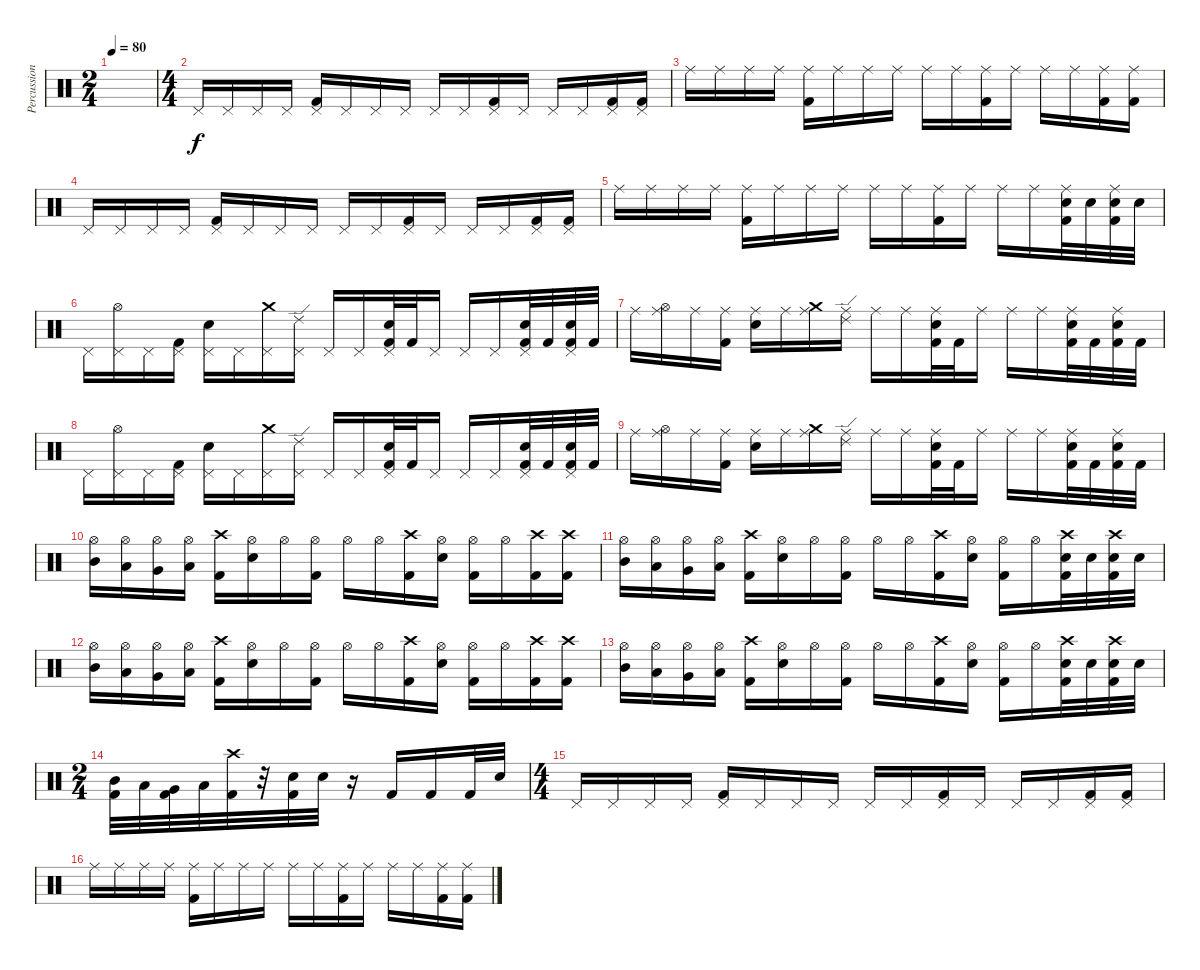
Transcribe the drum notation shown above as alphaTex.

\track ("Percussions" "Percussion") {instrument percussion}
\staff {score}
\articulation defaults
\ts (2 4)
\tempo 80
\clef neutral
\ks c
|
\ts (4 4)
"Pedal Hi-Hat (hit)".16 "Pedal Hi-Hat (hit)".16 "Pedal Hi-Hat (hit)".16 "Pedal Hi-Hat (hit)".16 ("Pedal Hi-Hat (hit)" "Kick (hit) 2").16 "Pedal Hi-Hat (hit)".16 "Pedal Hi-Hat (hit)".16 "Pedal Hi-Hat (hit)".16 "Pedal Hi-Hat (hit)".16 "Pedal Hi-Hat (hit)".16 ("Pedal Hi-Hat (hit)" "Kick (hit) 2").16 "Pedal Hi-Hat (hit)".16 "Pedal Hi-Hat (hit)".16 "Pedal Hi-Hat (hit)".16 ("Pedal Hi-Hat (hit)" "Kick (hit) 2").16 ("Pedal Hi-Hat (hit)" "Kick (hit) 2").16 |
"Ride (middle)".16 "Ride (middle)".16 "Ride (middle)".16 "Ride (middle)".16 ("Ride (middle)" "Kick (hit) 2").16 "Ride (middle)".16 "Ride (middle)".16 "Ride (middle)".16 "Ride (middle)".16 "Ride (middle)".16 ("Ride (middle)" "Kick (hit) 2").16 "Ride (middle)".16 "Ride (middle)".16 "Ride (middle)".16 ("Ride (middle)" "Kick (hit) 2").16 ("Ride (middle)" "Kick (hit) 2").16 |
"Pedal Hi-Hat (hit)".16 "Pedal Hi-Hat (hit)".16 "Pedal Hi-Hat (hit)".16 "Pedal Hi-Hat (hit)".16 ("Pedal Hi-Hat (hit)" "Kick (hit) 2").16 "Pedal Hi-Hat (hit)".16 "Pedal Hi-Hat (hit)".16 "Pedal Hi-Hat (hit)".16 "Pedal Hi-Hat (hit)".16 "Pedal Hi-Hat (hit)".16 ("Pedal Hi-Hat (hit)" "Kick (hit) 2").16 "Pedal Hi-Hat (hit)".16 "Pedal Hi-Hat (hit)".16 "Pedal Hi-Hat (hit)".16 ("Pedal Hi-Hat (hit)" "Kick (hit) 2").16 ("Pedal Hi-Hat (hit)" "Kick (hit) 2").16 |
"Ride (middle)".16 "Ride (middle)".16 "Ride (middle)".16 "Ride (middle)".16 ("Ride (middle)" "Kick (hit) 2").16 "Ride (middle)".16 "Ride (middle)".16 "Ride (middle)".16 "Ride (middle)".16 "Ride (middle)".16 ("Ride (middle)" "Kick (hit) 2").16 "Ride (middle)".16 "Ride (middle)".16 "Ride (middle)".16 ("Ride (middle)" "Kick (hit) 2" "Electric Snare (hit)").32 "Electric Snare (hit)".32 ("Ride (middle)" "Kick (hit) 2" "Electric Snare (hit)").32 "Electric Snare (hit)".32 |
"Pedal Hi-Hat (hit)".16 ("Pedal Hi-Hat (hit)" "Hi-Hat (open)").16 "Pedal Hi-Hat (hit)".16 ("Pedal Hi-Hat (hit)" "Kick (hit) 2").16 ("Pedal Hi-Hat (hit)" "Electric Snare (hit)").16 "Pedal Hi-Hat (hit)".16 ("Pedal Hi-Hat (hit)" "Crash medium (hit)").16 ("Pedal Hi-Hat (hit)" "Ride (edge) 2").16 "Pedal Hi-Hat (hit)".16 "Pedal Hi-Hat (hit)".16 ("Pedal Hi-Hat (hit)" "Kick (hit) 2" "Electric Snare (hit)").32 "Kick (hit) 2".32 "Pedal Hi-Hat (hit)".16 "Pedal Hi-Hat (hit)".16 "Pedal Hi-Hat (hit)".16 ("Pedal Hi-Hat (hit)" "Electric Snare (hit)" "Kick (hit) 2").32 "Kick (hit) 2".32 ("Pedal Hi-Hat (hit)" "Electric Snare (hit)" "Kick (hit) 2").32 "Kick (hit) 2".32 |
"Ride (middle)".16 ("Ride (middle)" "Hi-Hat (open)").16 "Ride (middle)".16 ("Ride (middle)" "Kick (hit) 2").16 ("Ride (middle)" "Electric Snare (hit)").16 "Ride (middle)".16 ("Ride (middle)" "Crash medium (hit)").16 ("Ride (middle)" "Ride (edge) 2").16 "Ride (middle)".16 "Ride (middle)".16 ("Ride (middle)" "Kick (hit) 2" "Electric Snare (hit)").32 "Kick (hit) 2".32 "Ride (middle)".16 "Ride (middle)".16 "Ride (middle)".16 ("Ride (middle)" "Electric Snare (hit)" "Kick (hit) 2").32 "Kick (hit) 2".32 ("Ride (middle)" "Electric Snare (hit)" "Kick (hit) 2").32 "Kick (hit) 2".32 |
"Pedal Hi-Hat (hit)".16 ("Pedal Hi-Hat (hit)" "Hi-Hat (open)").16 "Pedal Hi-Hat (hit)".16 ("Pedal Hi-Hat (hit)" "Kick (hit) 2").16 ("Pedal Hi-Hat (hit)" "Electric Snare (hit)").16 "Pedal Hi-Hat (hit)".16 ("Pedal Hi-Hat (hit)" "Crash medium (hit)").16 ("Pedal Hi-Hat (hit)" "Ride (edge) 2").16 "Pedal Hi-Hat (hit)".16 "Pedal Hi-Hat (hit)".16 ("Pedal Hi-Hat (hit)" "Kick (hit) 2" "Electric Snare (hit)").32 "Kick (hit) 2".32 "Pedal Hi-Hat (hit)".16 "Pedal Hi-Hat (hit)".16 "Pedal Hi-Hat (hit)".16 ("Pedal Hi-Hat (hit)" "Electric Snare (hit)" "Kick (hit) 2").32 "Kick (hit) 2".32 ("Pedal Hi-Hat (hit)" "Electric Snare (hit)" "Kick (hit) 2").32 "Kick (hit) 2".32 |
"Ride (middle)".16 ("Ride (middle)" "Hi-Hat (open)").16 "Ride (middle)".16 ("Ride (middle)" "Kick (hit) 2").16 ("Ride (middle)" "Electric Snare (hit)").16 "Ride (middle)".16 ("Ride (middle)" "Crash medium (hit)").16 ("Ride (middle)" "Ride (edge) 2").16 "Ride (middle)".16 "Ride (middle)".16 ("Ride (middle)" "Kick (hit) 2" "Electric Snare (hit)").32 "Kick (hit) 2".32 "Ride (middle)".16 "Ride (middle)".16 "Ride (middle)".16 ("Ride (middle)" "Electric Snare (hit)" "Kick (hit) 2").32 "Kick (hit) 2".32 ("Ride (middle)" "Electric Snare (hit)" "Kick (hit) 2").32 "Kick (hit) 2".32 |
("Hi-Hat (open)" "Mid Tom (hit)").16 ("Hi-Hat (open)" "Low Tom (hit)").16 ("Hi-Hat (open)" "Very Low Tom (hit)").16 ("Hi-Hat (open)" "Low Floor Tom (hit)").16 ("Crash high (hit)" "Kick (hit) 2").16 ("Hi-Hat (open)" "Snare (hit) 2").16 "Hi-Hat (open)".16 ("Hi-Hat (open)" "Kick (hit) 2").16 "Hi-Hat (open)".16 "Hi-Hat (open)".16 ("Crash high (hit)" "Kick (hit) 2").16 ("Hi-Hat (open)" "Snare (hit) 2").16 ("Hi-Hat (open)" "Kick (hit) 2").16 "Hi-Hat (open)".16 ("Crash high (hit)" "Kick (hit) 2").16 ("Crash high (hit)" "Kick (hit) 2").16 |
("Hi-Hat (open)" "Mid Tom (hit)").16 ("Hi-Hat (open)" "Low Tom (hit)").16 ("Hi-Hat (open)" "Very Low Tom (hit)").16 ("Hi-Hat (open)" "Low Floor Tom (hit)").16 ("Crash high (hit)" "Kick (hit) 2").16 ("Hi-Hat (open)" "Snare (hit) 2").16 "Hi-Hat (open)".16 ("Hi-Hat (open)" "Kick (hit) 2").16 "Hi-Hat (open)".16 "Hi-Hat (open)".16 ("Crash high (hit)" "Kick (hit) 2").16 ("Hi-Hat (open)" "Snare (hit) 2").16 ("Hi-Hat (open)" "Kick (hit) 2").16 "Hi-Hat (open)".16 ("Crash high (hit)" "Kick (hit) 2" "Snare (hit) 2").32 "Snare (hit) 2".32 ("Crash high (hit)" "Kick (hit) 2" "Snare (hit) 2").32 "Snare (hit) 2".32 |
("Hi-Hat (open)" "Mid Tom (hit)").16 ("Hi-Hat (open)" "Low Tom (hit)").16 ("Hi-Hat (open)" "Very Low Tom (hit)").16 ("Hi-Hat (open)" "Low Floor Tom (hit)").16 ("Crash high (hit)" "Kick (hit) 2").16 ("Hi-Hat (open)" "Snare (hit) 2").16 "Hi-Hat (open)".16 ("Hi-Hat (open)" "Kick (hit) 2").16 "Hi-Hat (open)".16 "Hi-Hat (open)".16 ("Crash high (hit)" "Kick (hit) 2").16 ("Hi-Hat (open)" "Snare (hit) 2").16 ("Hi-Hat (open)" "Kick (hit) 2").16 "Hi-Hat (open)".16 ("Crash high (hit)" "Kick (hit) 2").16 ("Crash high (hit)" "Kick (hit) 2").16 |
("Hi-Hat (open)" "Mid Tom (hit)").16 ("Hi-Hat (open)" "Low Tom (hit)").16 ("Hi-Hat (open)" "Very Low Tom (hit)").16 ("Hi-Hat (open)" "Low Floor Tom (hit)").16 ("Crash high (hit)" "Kick (hit) 2").16 ("Hi-Hat (open)" "Snare (hit) 2").16 "Hi-Hat (open)".16 ("Hi-Hat (open)" "Kick (hit) 2").16 "Hi-Hat (open)".16 "Hi-Hat (open)".16 ("Crash high (hit)" "Kick (hit) 2").16 ("Hi-Hat (open)" "Snare (hit) 2").16 ("Hi-Hat (open)" "Kick (hit) 2").16 "Hi-Hat (open)".16 ("Crash high (hit)" "Kick (hit) 2" "Snare (hit) 2").32 "Snare (hit) 2".32 ("Crash high (hit)" "Kick (hit) 2" "Snare (hit) 2").32 "Snare (hit)"{x}.32 |
\ts (2 4)
("Kick (hit) 2" "Mid Tom (hit)").32 "Low Tom (hit)".32 ("Kick (hit) 2" "Very Low Tom (hit)").32 "Low Floor Tom (hit)".32 ("Kick (hit) 2" "Crash high (hit)").32 r.32 ("Kick (hit) 2" "Electric Snare (hit)").32 "Electric Snare (hit)".32 r.16 "Kick (hit) 2".16 "Kick (hit) 2".16 "Kick (hit) 2".32 "Snare (hit) 2".32 |
\ts (4 4)
"Pedal Hi-Hat (hit)".16 "Pedal Hi-Hat (hit)".16 "Pedal Hi-Hat (hit)".16 "Pedal Hi-Hat (hit)".16 ("Pedal Hi-Hat (hit)" "Kick (hit) 2").16 "Pedal Hi-Hat (hit)".16 "Pedal Hi-Hat (hit)".16 "Pedal Hi-Hat (hit)".16 "Pedal Hi-Hat (hit)".16 "Pedal Hi-Hat (hit)".16 ("Pedal Hi-Hat (hit)" "Kick (hit) 2").16 "Pedal Hi-Hat (hit)".16 "Pedal Hi-Hat (hit)".16 "Pedal Hi-Hat (hit)".16 ("Pedal Hi-Hat (hit)" "Kick (hit) 2").16 ("Pedal Hi-Hat (hit)" "Kick (hit) 2").16 |
"Ride (middle)".16 "Ride (middle)".16 "Ride (middle)".16 "Ride (middle)".16 ("Ride (middle)" "Kick (hit) 2").16 "Ride (middle)".16 "Ride (middle)".16 "Ride (middle)".16 "Ride (middle)".16 "Ride (middle)".16 ("Ride (middle)" "Kick (hit) 2").16 "Ride (middle)".16 "Ride (middle)".16 "Ride (middle)".16 ("Ride (middle)" "Kick (hit) 2").16 ("Ride (middle)" "Kick (hit) 2").16
